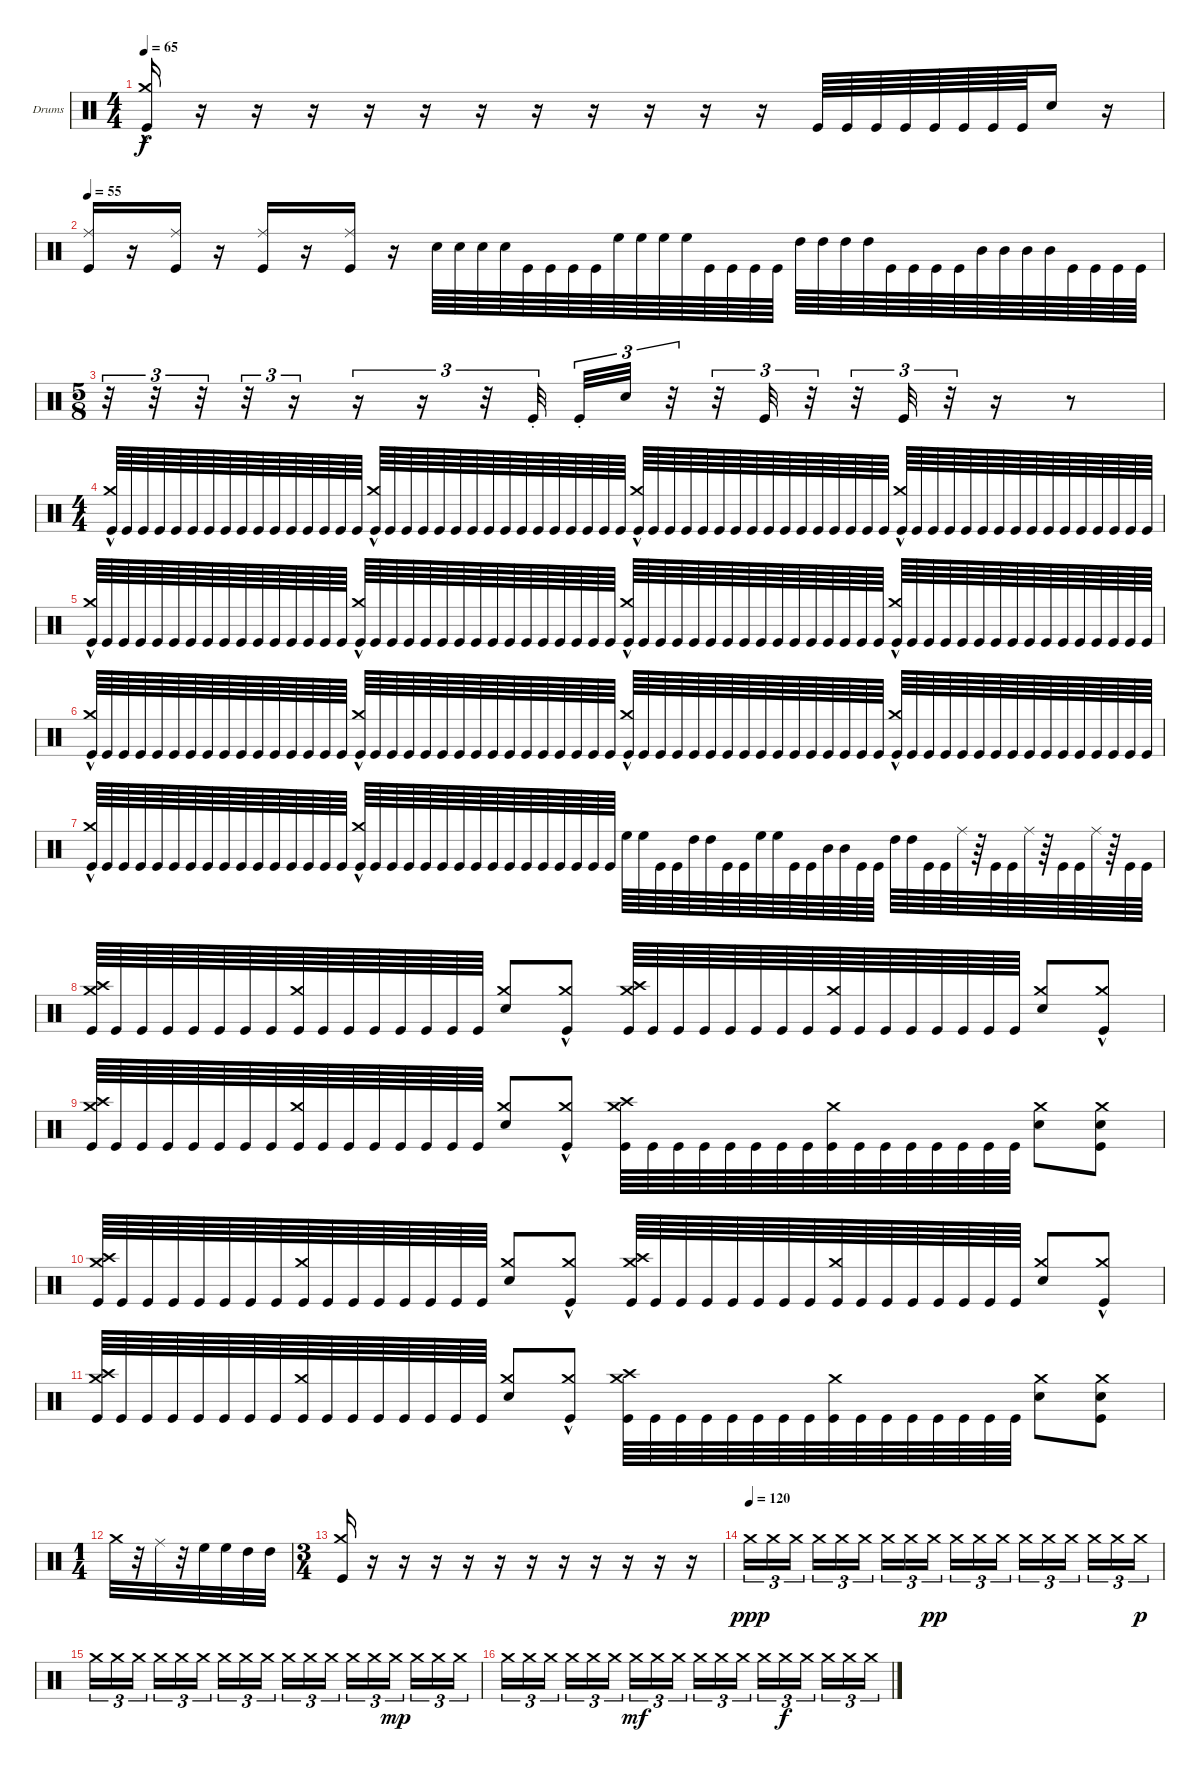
\defaultSystemsLayout 4
\bracketExtendMode groupsimilarinstruments
\firstSystemTrackNameOrientation horizontal
\otherSystemsTrackNameOrientation horizontal
\track ("Drumkit" "Drums") {instrument percussion}
\staff {score}
\articulation defaults
\ts (4 4)
\tempo 65
\clef neutral
\ks c
("Crash medium (hit)"{hac} "Kick (hit)").16{dy f beam invert} r.16 r.16 r.16 r.16 r.16 r.16 r.16 r.16 r.16 r.16 r.16 "Kick (hit)".64 "Kick (hit)".64 "Kick (hit)".64 "Kick (hit)".64 "Kick (hit)".64 "Kick (hit)".64 "Kick (hit)".64 "Kick (hit)".64 "Snare (hit) 2".16 r.16 |
\tempo 55
("Kick (hit)" "Ride (middle)").16{beam invert} r.16 ("Kick (hit)" "Ride (middle)").16 r.16 ("Kick (hit)" "Ride (middle)").16{beam invert} r.16 ("Kick (hit)" "Ride (middle)").16 r.16 "Snare (hit) 2".64{beam invert} "Snare (hit) 2".64 "Snare (hit) 2".64 "Snare (hit) 2".64 "Kick (hit)".64 "Kick (hit)".64 "Kick (hit)".64 "Kick (hit)".64 "High Floor Tom (hit)".64 "High Floor Tom (hit)".64 "High Floor Tom (hit)".64 "High Floor Tom (hit)".64 "Kick (hit)".64 "Kick (hit)".64 "Kick (hit)".64 "Kick (hit)".64 "High Tom (hit)".64{beam invert} "High Tom (hit)".64 "High Tom (hit)".64 "High Tom (hit)".64 "Kick (hit)".64 "Kick (hit)".64 "Kick (hit)".64 "Kick (hit)".64 "Mid Tom (hit)".64 "Mid Tom (hit)".64 "Mid Tom (hit)".64 "Mid Tom (hit)".64 "Kick (hit)".64 "Kick (hit)".64 "Kick (hit)".64 "Kick (hit)".64 |
\ts (5 8)
r.32{tu (3 2)} r.32{tu (3 2)} r.32{tu (3 2)} r.32{tu (3 2)} r.16{tu (3 2)} r.16{tu (3 2)} r.16{tu (3 2)} r.32{tu (3 2)} "Kick (hit)"{st}.32{tu (3 2)} "Kick (hit)"{st}.32{tu (3 2)} "Snare (hit) 2".32{tu (3 2)} r.32{tu (3 2)} r.32{tu (3 2)} "Kick (hit)".32{tu (3 2)} r.32{tu (3 2)} r.32{tu (3 2)} "Kick (hit)".32{tu (3 2)} r.32{tu (3 2)} r.16 r.8 |
\ts (4 4)
("Kick (hit)" "Crash medium (hit)"{hac}).64{beam invert} "Kick (hit)".64 "Kick (hit)".64 "Kick (hit)".64 "Kick (hit)".64 "Kick (hit)".64 "Kick (hit)".64 "Kick (hit)".64 "Kick (hit)".64 "Kick (hit)".64 "Kick (hit)".64 "Kick (hit)".64 "Kick (hit)".64 "Kick (hit)".64 "Kick (hit)".64 "Kick (hit)".64 ("Kick (hit)" "Crash medium (hit)"{hac}).64{beam invert} "Kick (hit)".64 "Kick (hit)".64 "Kick (hit)".64 "Kick (hit)".64 "Kick (hit)".64 "Kick (hit)".64 "Kick (hit)".64 "Kick (hit)".64 "Kick (hit)".64 "Kick (hit)".64 "Kick (hit)".64 "Kick (hit)".64 "Kick (hit)".64 "Kick (hit)".64 "Kick (hit)".64 ("Kick (hit)" "Crash medium (hit)"{hac}).64{beam invert} "Kick (hit)".64 "Kick (hit)".64 "Kick (hit)".64 "Kick (hit)".64 "Kick (hit)".64 "Kick (hit)".64 "Kick (hit)".64 "Kick (hit)".64 "Kick (hit)".64 "Kick (hit)".64 "Kick (hit)".64 "Kick (hit)".64 "Kick (hit)".64 "Kick (hit)".64 "Kick (hit)".64 ("Kick (hit)" "Crash medium (hit)"{hac}).64{beam invert} "Kick (hit)".64 "Kick (hit)".64 "Kick (hit)".64 "Kick (hit)".64 "Kick (hit)".64 "Kick (hit)".64 "Kick (hit)".64 "Kick (hit)".64 "Kick (hit)".64 "Kick (hit)".64 "Kick (hit)".64 "Kick (hit)".64 "Kick (hit)".64 "Kick (hit)".64 "Kick (hit)".64 |
("Kick (hit)" "Crash medium (hit)"{hac}).64{beam invert} "Kick (hit)".64 "Kick (hit)".64 "Kick (hit)".64 "Kick (hit)".64 "Kick (hit)".64 "Kick (hit)".64 "Kick (hit)".64 "Kick (hit)".64 "Kick (hit)".64 "Kick (hit)".64 "Kick (hit)".64 "Kick (hit)".64 "Kick (hit)".64 "Kick (hit)".64 "Kick (hit)".64 ("Kick (hit)" "Crash medium (hit)"{hac}).64{beam invert} "Kick (hit)".64 "Kick (hit)".64 "Kick (hit)".64 "Kick (hit)".64 "Kick (hit)".64 "Kick (hit)".64 "Kick (hit)".64 "Kick (hit)".64 "Kick (hit)".64 "Kick (hit)".64 "Kick (hit)".64 "Kick (hit)".64 "Kick (hit)".64 "Kick (hit)".64 "Kick (hit)".64 ("Kick (hit)" "Crash medium (hit)"{hac}).64{beam invert} "Kick (hit)".64 "Kick (hit)".64 "Kick (hit)".64 "Kick (hit)".64 "Kick (hit)".64 "Kick (hit)".64 "Kick (hit)".64 "Kick (hit)".64 "Kick (hit)".64 "Kick (hit)".64 "Kick (hit)".64 "Kick (hit)".64 "Kick (hit)".64 "Kick (hit)".64 "Kick (hit)".64 ("Kick (hit)" "Crash medium (hit)"{hac}).64{beam invert} "Kick (hit)".64 "Kick (hit)".64 "Kick (hit)".64 "Kick (hit)".64 "Kick (hit)".64 "Kick (hit)".64 "Kick (hit)".64 "Kick (hit)".64 "Kick (hit)".64 "Kick (hit)".64 "Kick (hit)".64 "Kick (hit)".64 "Kick (hit)".64 "Kick (hit)".64 "Kick (hit)".64 |
("Kick (hit)" "Crash medium (hit)"{hac}).64{beam invert} "Kick (hit)".64 "Kick (hit)".64 "Kick (hit)".64 "Kick (hit)".64 "Kick (hit)".64 "Kick (hit)".64 "Kick (hit)".64 "Kick (hit)".64 "Kick (hit)".64 "Kick (hit)".64 "Kick (hit)".64 "Kick (hit)".64 "Kick (hit)".64 "Kick (hit)".64 "Kick (hit)".64 ("Kick (hit)" "Crash medium (hit)"{hac}).64{beam invert} "Kick (hit)".64 "Kick (hit)".64 "Kick (hit)".64 "Kick (hit)".64 "Kick (hit)".64 "Kick (hit)".64 "Kick (hit)".64 "Kick (hit)".64 "Kick (hit)".64 "Kick (hit)".64 "Kick (hit)".64 "Kick (hit)".64 "Kick (hit)".64 "Kick (hit)".64 "Kick (hit)".64 ("Kick (hit)" "Crash medium (hit)"{hac}).64{beam invert} "Kick (hit)".64 "Kick (hit)".64 "Kick (hit)".64 "Kick (hit)".64 "Kick (hit)".64 "Kick (hit)".64 "Kick (hit)".64 "Kick (hit)".64 "Kick (hit)".64 "Kick (hit)".64 "Kick (hit)".64 "Kick (hit)".64 "Kick (hit)".64 "Kick (hit)".64 "Kick (hit)".64 ("Kick (hit)" "Crash medium (hit)"{hac}).64{beam invert} "Kick (hit)".64 "Kick (hit)".64 "Kick (hit)".64 "Kick (hit)".64 "Kick (hit)".64 "Kick (hit)".64 "Kick (hit)".64 "Kick (hit)".64 "Kick (hit)".64 "Kick (hit)".64 "Kick (hit)".64 "Kick (hit)".64 "Kick (hit)".64 "Kick (hit)".64 "Kick (hit)".64 |
("Kick (hit)" "Crash medium (hit)"{hac}).64{beam invert} "Kick (hit)".64 "Kick (hit)".64 "Kick (hit)".64 "Kick (hit)".64 "Kick (hit)".64 "Kick (hit)".64 "Kick (hit)".64 "Kick (hit)".64 "Kick (hit)".64 "Kick (hit)".64 "Kick (hit)".64 "Kick (hit)".64 "Kick (hit)".64 "Kick (hit)".64 "Kick (hit)".64 ("Kick (hit)" "Crash medium (hit)"{hac}).64{beam invert} "Kick (hit)".64 "Kick (hit)".64 "Kick (hit)".64 "Kick (hit)".64 "Kick (hit)".64 "Kick (hit)".64 "Kick (hit)".64 "Kick (hit)".64 "Kick (hit)".64 "Kick (hit)".64 "Kick (hit)".64 "Kick (hit)".64 "Kick (hit)".64 "Kick (hit)".64 "Kick (hit)".64 "High Floor Tom (hit)".64{beam invert} "High Floor Tom (hit)".64 "Kick (hit)".64 "Kick (hit)".64 "High Tom (hit)".64 "High Tom (hit)".64 "Kick (hit)".64 "Kick (hit)".64 "High Floor Tom (hit)".64 "High Floor Tom (hit)".64 "Kick (hit)".64 "Kick (hit)".64 "Mid Tom (hit)".64 "Mid Tom (hit)".64 "Kick (hit)".64 "Kick (hit)".64 "High Tom (hit)".64 "High Tom (hit)".64 "Kick (hit)".64 "Kick (hit)".64 "Ride (middle)".64 r.64 "Kick (hit)".64 "Kick (hit)".64 "Ride (middle)".64 r.64 "Kick (hit)".64 "Kick (hit)".64 "Ride (middle)".64 r.64 "Kick (hit)".64 "Kick (hit)".64 |
("Kick (hit)" "Crash medium (hit)" "Crash high (hit)").64 "Kick (hit)".64 "Kick (hit)".64 "Kick (hit)".64 "Kick (hit)".64 "Kick (hit)".64 "Kick (hit)".64 "Kick (hit)".64 ("Kick (hit)" "Crash medium (hit)").64 "Kick (hit)".64 "Kick (hit)".64 "Kick (hit)".64 "Kick (hit)".64 "Kick (hit)".64 "Kick (hit)".64 "Kick (hit)".64 ("Crash medium (hit)" "Snare (hit) 2").8{beam invert} ("Crash medium (hit)"{hac} "Kick (hit)").8 ("Kick (hit)" "Crash medium (hit)" "Crash high (hit)").64 "Kick (hit)".64 "Kick (hit)".64 "Kick (hit)".64 "Kick (hit)".64 "Kick (hit)".64 "Kick (hit)".64 "Kick (hit)".64 ("Kick (hit)" "Crash medium (hit)").64 "Kick (hit)".64 "Kick (hit)".64 "Kick (hit)".64 "Kick (hit)".64 "Kick (hit)".64 "Kick (hit)".64 "Kick (hit)".64 ("Crash medium (hit)" "Snare (hit) 2").8{beam invert} ("Crash medium (hit)"{hac} "Kick (hit)").8 |
("Kick (hit)" "Crash medium (hit)" "Crash high (hit)").64 "Kick (hit)".64 "Kick (hit)".64 "Kick (hit)".64 "Kick (hit)".64 "Kick (hit)".64 "Kick (hit)".64 "Kick (hit)".64 ("Kick (hit)" "Crash medium (hit)").64 "Kick (hit)".64 "Kick (hit)".64 "Kick (hit)".64 "Kick (hit)".64 "Kick (hit)".64 "Kick (hit)".64 "Kick (hit)".64 ("Crash medium (hit)" "Snare (hit) 2").8{beam invert} ("Crash medium (hit)"{hac} "Kick (hit)").8 ("Kick (hit)" "Crash medium (hit)" "Crash high (hit)").64 "Kick (hit)".64 "Kick (hit)".64 "Kick (hit)".64 "Kick (hit)".64 "Kick (hit)".64 "Kick (hit)".64 "Kick (hit)".64 ("Kick (hit)" "Crash medium (hit)").64 "Kick (hit)".64 "Kick (hit)".64 "Kick (hit)".64 "Kick (hit)".64 "Kick (hit)".64 "Kick (hit)".64 "Kick (hit)".64 ("Crash medium (hit)" "Snare (hit) 2").8 ("Crash medium (hit)" "Kick (hit)" "Snare (hit) 2").8 |
("Kick (hit)" "Crash medium (hit)" "Crash high (hit)").64 "Kick (hit)".64 "Kick (hit)".64 "Kick (hit)".64 "Kick (hit)".64 "Kick (hit)".64 "Kick (hit)".64 "Kick (hit)".64 ("Kick (hit)" "Crash medium (hit)").64 "Kick (hit)".64 "Kick (hit)".64 "Kick (hit)".64 "Kick (hit)".64 "Kick (hit)".64 "Kick (hit)".64 "Kick (hit)".64 ("Crash medium (hit)" "Snare (hit) 2").8{beam invert} ("Crash medium (hit)"{hac} "Kick (hit)").8 ("Kick (hit)" "Crash medium (hit)" "Crash high (hit)").64 "Kick (hit)".64 "Kick (hit)".64 "Kick (hit)".64 "Kick (hit)".64 "Kick (hit)".64 "Kick (hit)".64 "Kick (hit)".64 ("Kick (hit)" "Crash medium (hit)").64 "Kick (hit)".64 "Kick (hit)".64 "Kick (hit)".64 "Kick (hit)".64 "Kick (hit)".64 "Kick (hit)".64 "Kick (hit)".64 ("Crash medium (hit)" "Snare (hit) 2").8{beam invert} ("Crash medium (hit)"{hac} "Kick (hit)").8 |
("Kick (hit)" "Crash medium (hit)" "Crash high (hit)").64 "Kick (hit)".64 "Kick (hit)".64 "Kick (hit)".64 "Kick (hit)".64 "Kick (hit)".64 "Kick (hit)".64 "Kick (hit)".64 ("Kick (hit)" "Crash medium (hit)").64 "Kick (hit)".64 "Kick (hit)".64 "Kick (hit)".64 "Kick (hit)".64 "Kick (hit)".64 "Kick (hit)".64 "Kick (hit)".64 ("Crash medium (hit)" "Snare (hit) 2").8{beam invert} ("Crash medium (hit)"{hac} "Kick (hit)").8 ("Kick (hit)" "Crash medium (hit)" "Crash high (hit)").64 "Kick (hit)".64 "Kick (hit)".64 "Kick (hit)".64 "Kick (hit)".64 "Kick (hit)".64 "Kick (hit)".64 "Kick (hit)".64 ("Kick (hit)" "Crash medium (hit)").64 "Kick (hit)".64 "Kick (hit)".64 "Kick (hit)".64 "Kick (hit)".64 "Kick (hit)".64 "Kick (hit)".64 "Kick (hit)".64 ("Crash medium (hit)" "Snare (hit) 2").8 ("Crash medium (hit)" "Kick (hit)" "Snare (hit) 2").8 |
\ts (1 4)
"Crash medium (hit)".32 r.32 "Ride (middle)".32 r.32 "High Floor Tom (hit)".32 "High Floor Tom (hit)".32 "High Tom (hit)".32 "High Tom (hit)".32 |
\ts (3 4)
("Crash medium (hit)" "Kick (hit)").16{beam invert} r.16 r.16 r.16 r.16 r.16 r.16 r.16 r.16 r.16 r.16 r.16 |
\tempo (120)
"Crash medium (hit)".16{tu (3 2) dy ppp} "Crash medium (hit)".16{tu (3 2)} "Crash medium (hit)".16{tu (3 2)} "Crash medium (hit)".16{tu (3 2)} "Crash medium (hit)".16{tu (3 2)} "Crash medium (hit)".16{tu (3 2)} "Crash medium (hit)".16{tu (3 2)} "Crash medium (hit)".16{tu (3 2)} "Crash medium (hit)".16{tu (3 2) dy pp} "Crash medium (hit)".16{tu (3 2)} "Crash medium (hit)".16{tu (3 2)} "Crash medium (hit)".16{tu (3 2)} "Crash medium (hit)".16{tu (3 2)} "Crash medium (hit)".16{tu (3 2)} "Crash medium (hit)".16{tu (3 2)} "Crash medium (hit)".16{tu (3 2)} "Crash medium (hit)".16{tu (3 2)} "Crash medium (hit)".16{tu (3 2) dy p} |
"Crash medium (hit)".16{tu (3 2)} "Crash medium (hit)".16{tu (3 2)} "Crash medium (hit)".16{tu (3 2)} "Crash medium (hit)".16{tu (3 2)} "Crash medium (hit)".16{tu (3 2)} "Crash medium (hit)".16{tu (3 2)} "Crash medium (hit)".16{tu (3 2)} "Crash medium (hit)".16{tu (3 2)} "Crash medium (hit)".16{tu (3 2)} "Crash medium (hit)".16{tu (3 2)} "Crash medium (hit)".16{tu (3 2)} "Crash medium (hit)".16{tu (3 2)} "Crash medium (hit)".16{tu (3 2)} "Crash medium (hit)".16{tu (3 2)} "Crash medium (hit)".16{tu (3 2) dy mp} "Crash medium (hit)".16{tu (3 2)} "Crash medium (hit)".16{tu (3 2)} "Crash medium (hit)".16{tu (3 2)} |
"Crash medium (hit)".16{tu (3 2)} "Crash medium (hit)".16{tu (3 2)} "Crash medium (hit)".16{tu (3 2)} "Crash medium (hit)".16{tu (3 2)} "Crash medium (hit)".16{tu (3 2)} "Crash medium (hit)".16{tu (3 2)} "Crash medium (hit)".16{tu (3 2) dy mf} "Crash medium (hit)".16{tu (3 2)} "Crash medium (hit)".16{tu (3 2)} "Crash medium (hit)".16{tu (3 2)} "Crash medium (hit)".16{tu (3 2)} "Crash medium (hit)".16{tu (3 2)} "Crash medium (hit)".16{tu (3 2)} "Crash medium (hit)".16{tu (3 2) dy f} "Crash medium (hit)".16{tu (3 2)} "Crash medium (hit)".16{tu (3 2)} "Crash medium (hit)".16{tu (3 2)} "Crash medium (hit)".16{tu (3 2)}
